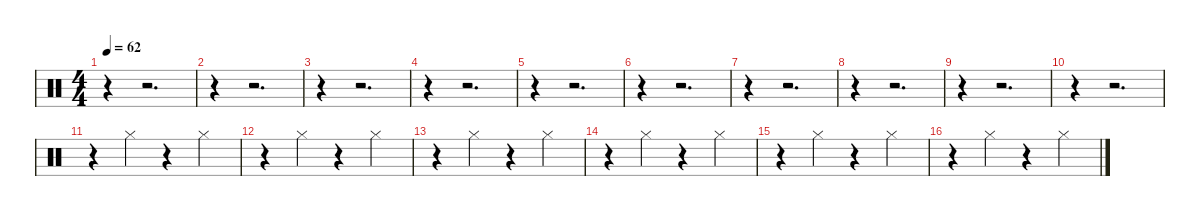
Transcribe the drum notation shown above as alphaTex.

\defaultSystemsLayout 4
\hideDynamics
\bracketExtendMode nobrackets
\singleTrackTrackNamePolicy hidden
\multiTrackTrackNamePolicy hidden
\firstSystemTrackNameMode fullname
\otherSystemsTrackNameOrientation horizontal
\track ("Drums" "drm.") {instrument percussion}
\staff {score}
\articulation defaults
\ts (4 4)
\beaming (8 2 2 2 2)
\tempo 62
\clef neutral
\ks c
r.4{dy f beam Down} r.2{d beam Down} |
r.4{beam Down} r.2{d beam Down} |
r.4{beam Down} r.2{d beam Down} |
r.4{beam Down} r.2{d beam Down} |
r.4{beam Down} r.2{d beam Down} |
r.4{beam Down} r.2{d beam Down} |
r.4{beam Down} r.2{d beam Down} |
r.4{beam Down} r.2{d beam Down} |
r.4{beam Down} r.2{d beam Down} |
r.4{beam Down} r.2{d beam Down} |
r.4{beam Down} "Hi-Hat (closed)".4{beam Down} r.4{beam Down} "Hi-Hat (closed)".4{beam Down} |
r.4{beam Down} "Hi-Hat (closed)".4{beam Down} r.4{beam Down} "Hi-Hat (closed)".4{beam Down} |
r.4{beam Down} "Hi-Hat (closed)".4{beam Down} r.4{beam Down} "Hi-Hat (closed)".4{beam Down} |
r.4{beam Down} "Hi-Hat (closed)".4{beam Down} r.4{beam Down} "Hi-Hat (closed)".4{beam Down} |
r.4{beam Down} "Hi-Hat (closed)".4{beam Down} r.4{beam Down} "Hi-Hat (closed)".4{beam Down} |
r.4{beam Down} "Hi-Hat (closed)".4{beam Down} r.4{beam Down} "Hi-Hat (closed)".4{beam Down}
